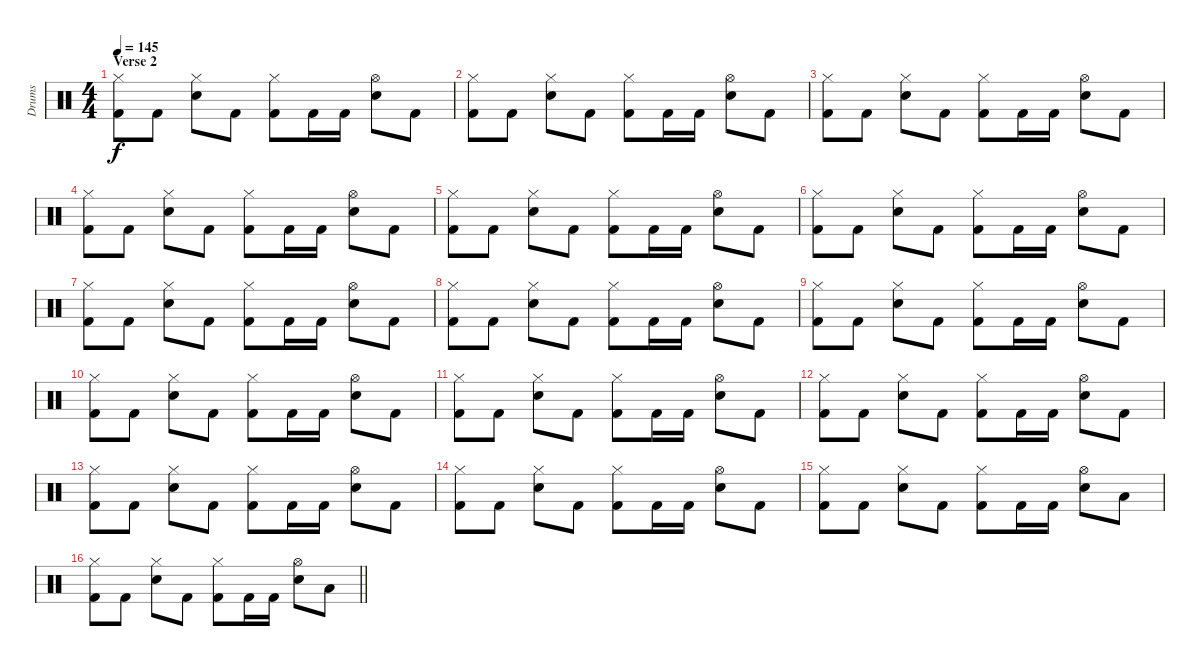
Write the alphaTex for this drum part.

\track ("Drums" "Drums") {instrument percussion}
\staff {score}
\articulation defaults
\ts (4 4)
\section ("" "Verse 2")
\tempo 145
\clef neutral
\ks c
("Hi-Hat (closed)" "Kick (hit) 2").8{dy f} "Kick (hit) 2".8 ("Hi-Hat (closed)" "Snare (hit) 2").8 "Kick (hit) 2".8 ("Hi-Hat (closed)" "Kick (hit) 2").8 "Kick (hit) 2".16 "Kick (hit) 2".16 ("Hi-Hat (open)" "Snare (hit) 2").8 "Kick (hit) 2".8 |
("Hi-Hat (closed)" "Kick (hit) 2").8 "Kick (hit) 2".8 ("Hi-Hat (closed)" "Snare (hit) 2").8 "Kick (hit) 2".8 ("Hi-Hat (closed)" "Kick (hit) 2").8 "Kick (hit) 2".16 "Kick (hit) 2".16 ("Hi-Hat (open)" "Snare (hit) 2").8 "Kick (hit) 2".8 |
("Hi-Hat (closed)" "Kick (hit) 2").8 "Kick (hit) 2".8 ("Hi-Hat (closed)" "Snare (hit) 2").8 "Kick (hit) 2".8 ("Hi-Hat (closed)" "Kick (hit) 2").8 "Kick (hit) 2".16 "Kick (hit) 2".16 ("Hi-Hat (open)" "Snare (hit) 2").8 "Kick (hit) 2".8 |
("Hi-Hat (closed)" "Kick (hit) 2").8 "Kick (hit) 2".8 ("Hi-Hat (closed)" "Snare (hit) 2").8 "Kick (hit) 2".8 ("Hi-Hat (closed)" "Kick (hit) 2").8 "Kick (hit) 2".16 "Kick (hit) 2".16 ("Hi-Hat (open)" "Snare (hit) 2").8 "Kick (hit) 2".8 |
("Hi-Hat (closed)" "Kick (hit) 2").8 "Kick (hit) 2".8 ("Hi-Hat (closed)" "Snare (hit) 2").8 "Kick (hit) 2".8 ("Hi-Hat (closed)" "Kick (hit) 2").8 "Kick (hit) 2".16 "Kick (hit) 2".16 ("Hi-Hat (open)" "Snare (hit) 2").8 "Kick (hit) 2".8 |
("Hi-Hat (closed)" "Kick (hit) 2").8 "Kick (hit) 2".8 ("Hi-Hat (closed)" "Snare (hit) 2").8 "Kick (hit) 2".8 ("Hi-Hat (closed)" "Kick (hit) 2").8 "Kick (hit) 2".16 "Kick (hit) 2".16 ("Hi-Hat (open)" "Snare (hit) 2").8 "Kick (hit) 2".8 |
("Hi-Hat (closed)" "Kick (hit) 2").8 "Kick (hit) 2".8 ("Hi-Hat (closed)" "Snare (hit) 2").8 "Kick (hit) 2".8 ("Hi-Hat (closed)" "Kick (hit) 2").8 "Kick (hit) 2".16 "Kick (hit) 2".16 ("Hi-Hat (open)" "Snare (hit) 2").8 "Kick (hit) 2".8 |
("Hi-Hat (closed)" "Kick (hit) 2").8 "Kick (hit) 2".8 ("Hi-Hat (closed)" "Snare (hit) 2").8 "Kick (hit) 2".8 ("Hi-Hat (closed)" "Kick (hit) 2").8 "Kick (hit) 2".16 "Kick (hit) 2".16 ("Hi-Hat (open)" "Snare (hit) 2").8 "Kick (hit) 2".8 |
("Hi-Hat (closed)" "Kick (hit) 2").8 "Kick (hit) 2".8 ("Hi-Hat (closed)" "Snare (hit) 2").8 "Kick (hit) 2".8 ("Hi-Hat (closed)" "Kick (hit) 2").8 "Kick (hit) 2".16 "Kick (hit) 2".16 ("Hi-Hat (open)" "Snare (hit) 2").8 "Kick (hit) 2".8 |
("Hi-Hat (closed)" "Kick (hit) 2").8 "Kick (hit) 2".8 ("Hi-Hat (closed)" "Snare (hit) 2").8 "Kick (hit) 2".8 ("Hi-Hat (closed)" "Kick (hit) 2").8 "Kick (hit) 2".16 "Kick (hit) 2".16 ("Hi-Hat (open)" "Snare (hit) 2").8 "Kick (hit) 2".8 |
("Hi-Hat (closed)" "Kick (hit) 2").8 "Kick (hit) 2".8 ("Hi-Hat (closed)" "Snare (hit) 2").8 "Kick (hit) 2".8 ("Hi-Hat (closed)" "Kick (hit) 2").8 "Kick (hit) 2".16 "Kick (hit) 2".16 ("Hi-Hat (open)" "Snare (hit) 2").8 "Kick (hit) 2".8 |
("Hi-Hat (closed)" "Kick (hit) 2").8 "Kick (hit) 2".8 ("Hi-Hat (closed)" "Snare (hit) 2").8 "Kick (hit) 2".8 ("Hi-Hat (closed)" "Kick (hit) 2").8 "Kick (hit) 2".16 "Kick (hit) 2".16 ("Hi-Hat (open)" "Snare (hit) 2").8 "Kick (hit) 2".8 |
("Hi-Hat (closed)" "Kick (hit) 2").8 "Kick (hit) 2".8 ("Hi-Hat (closed)" "Snare (hit) 2").8 "Kick (hit) 2".8 ("Hi-Hat (closed)" "Kick (hit) 2").8 "Kick (hit) 2".16 "Kick (hit) 2".16 ("Hi-Hat (open)" "Snare (hit) 2").8 "Kick (hit) 2".8 |
("Hi-Hat (closed)" "Kick (hit) 2").8 "Kick (hit) 2".8 ("Hi-Hat (closed)" "Snare (hit) 2").8 "Kick (hit) 2".8 ("Hi-Hat (closed)" "Kick (hit) 2").8 "Kick (hit) 2".16 "Kick (hit) 2".16 ("Hi-Hat (open)" "Snare (hit) 2").8 "Kick (hit) 2".8 |
("Hi-Hat (closed)" "Kick (hit) 2").8 "Kick (hit) 2".8 ("Hi-Hat (closed)" "Snare (hit) 2").8 "Kick (hit) 2".8 ("Hi-Hat (closed)" "Kick (hit) 2").8 "Kick (hit) 2".16 "Kick (hit) 2".16 ("Hi-Hat (open)" "Snare (hit) 2").8 "Low Tom (hit)".8 |
\barLineRight lightlight
("Hi-Hat (closed)" "Kick (hit) 2").8 "Kick (hit) 2".8 ("Hi-Hat (closed)" "Snare (hit) 2").8 "Kick (hit) 2".8 ("Hi-Hat (closed)" "Kick (hit) 2").8 "Kick (hit) 2".16 "Kick (hit) 2".16 ("Hi-Hat (open)" "Snare (hit) 2").8 "Low Tom (hit)".8
